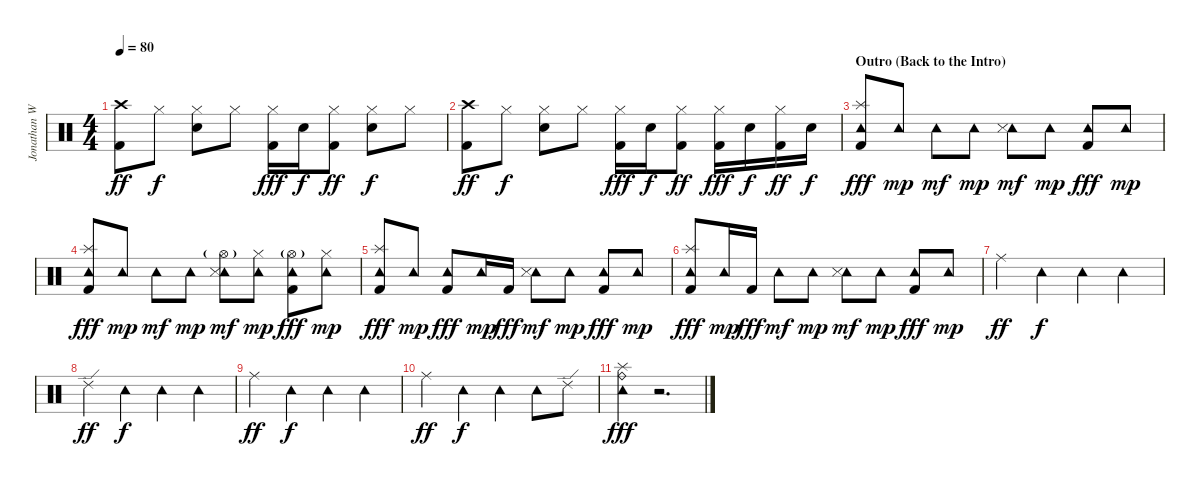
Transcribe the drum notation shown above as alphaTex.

\track ("Jonathan Wenzel" "Jonathan W") {instrument percussion}
\staff {score}
\articulation defaults
\ts (4 4)
\tempo 80
\clef neutral
\ks c
("Crash high (hit)" "Kick (hit) 2").8{dy ff} "Hi-Hat (closed)".8{dy f} ("Hi-Hat (closed)" "Electric Snare (hit)").8 "Hi-Hat (closed)".8 ("Hi-Hat (closed)" "Kick (hit) 2").16{dy fff} "Electric Snare (hit)".16{dy f} ("Hi-Hat (closed)" "Kick (hit) 2").8{dy ff} ("Hi-Hat (closed)" "Electric Snare (hit)").8{dy f} "Hi-Hat (closed)".8 |
("Crash high (hit)" "Kick (hit) 2").8{dy ff} "Hi-Hat (closed)".8{dy f} ("Hi-Hat (closed)" "Electric Snare (hit)").8 "Hi-Hat (closed)".8 ("Hi-Hat (closed)" "Kick (hit) 2").16{dy fff} "Electric Snare (hit)".16{dy f} ("Hi-Hat (closed)" "Kick (hit) 2").8{dy ff} ("Hi-Hat (closed)" "Kick (hit) 2").16{dy fff} "Electric Snare (hit)".16{dy f} ("Hi-Hat (closed)" "Kick (hit) 2").16{dy ff} "Electric Snare (hit)".16{dy f} |
\section ("" "Outro (Back to the Intro)")
("Splash (hit)" "Tambourine (hit)" "Kick (hit) 2").8{dy fff} "Tambourine (hit)".8{dy mp} "Tambourine (hit)".8{dy mf} "Tambourine (hit)".8{dy mp} ("Tambourine (hit)" "Snare (side stick) 3").8{dy mf} "Tambourine (hit)".8{dy mp} ("Tambourine (hit)" "Kick (hit) 2").8{dy fff} "Tambourine (hit)".8{dy mp} |
("Splash (hit)" "Tambourine (hit)" "Kick (hit) 2").8{dy fff} "Tambourine (hit)".8{dy mp} "Tambourine (hit)".8{dy mf} "Tambourine (hit)".8{dy mp} ("Hi-Hat (open)"{g} "Tambourine (hit)" "Snare (side stick) 3").8{dy mf} ("Hi-Hat (closed)" "Tambourine (hit)").8{dy mp} ("Hi-Hat (open)"{g} "Tambourine (hit)" "Kick (hit) 2").8{dy fff} ("Hi-Hat (closed)" "Tambourine (hit)").8{dy mp} |
("Splash (hit)" "Tambourine (hit)" "Kick (hit) 2").8{dy fff} "Tambourine (hit)".8{dy mp} ("Tambourine (hit)" "Kick (hit) 2").8{dy fff} "Tambourine (hit)".16{dy mp} "Kick (hit) 2".16{dy fff} ("Tambourine (hit)" "Snare (side stick) 3").8{dy mf} "Tambourine (hit)".8{dy mp} ("Tambourine (hit)" "Kick (hit) 2").8{dy fff} "Tambourine (hit)".8{dy mp} |
("Splash (hit)" "Tambourine (hit)" "Kick (hit) 2").8{dy fff} "Tambourine (hit)".16{dy mp} "Kick (hit) 2".16{dy fff} "Tambourine (hit)".8{dy mf} "Tambourine (hit)".8{dy mp} ("Tambourine (hit)" "Snare (side stick) 3").8{dy mf} "Tambourine (hit)".8{dy mp} ("Tambourine (hit)" "Kick (hit) 2").8{dy fff} "Tambourine (hit)".8{dy mp} |
"Ride (middle)".4{dy ff volume 12} "Tambourine (hit)".4{dy f} "Tambourine (hit)".4 "Tambourine (hit)".4 |
"Ride (edge) 2".4{dy ff} "Tambourine (hit)".4{dy f} "Tambourine (hit)".4 "Tambourine (hit)".4 |
"Ride (middle)".4{dy ff} "Tambourine (hit)".4{dy f} "Tambourine (hit)".4 "Tambourine (hit)".4 |
"Ride (middle)".4{dy ff} "Tambourine (hit)".4{dy f} "Tambourine (hit)".4 "Tambourine (hit)".8 "Ride (edge) 2".8 |
("Splash (hit)" "Tambourine (hit)" "Ride (bell)").4{dy fff} r.2{d}
